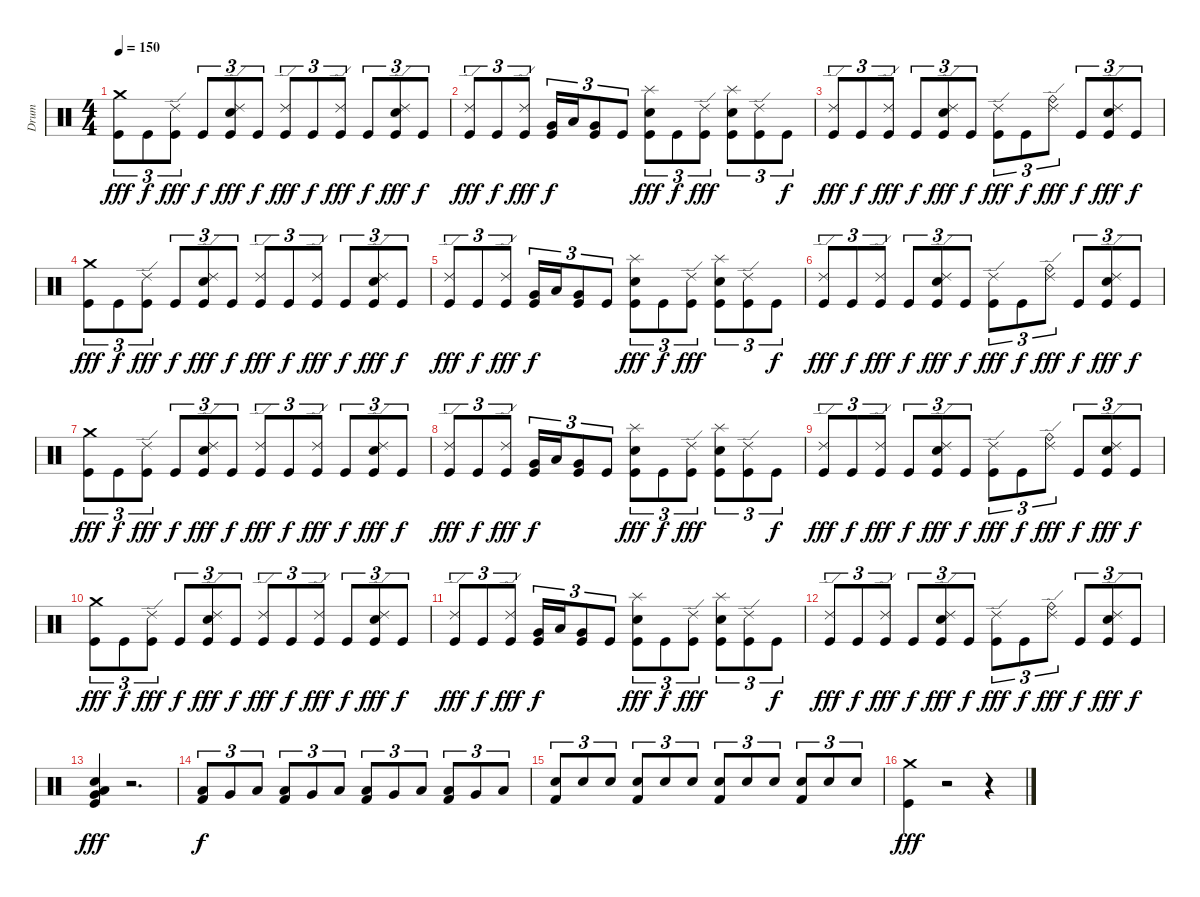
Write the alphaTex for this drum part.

\track ("Drum" "Drum") {instrument percussion}
\staff {score}
\articulation defaults
\ts (4 4)
\tempo 150
\clef neutral
\ks c
("Crash medium (hit)" "Kick (hit)").8{tu (3 2) dy fff} "Kick (hit)".8{tu (3 2) dy f} ("Ride (edge) 2" "Kick (hit)").8{tu (3 2) dy fff} "Kick (hit)".8{tu (3 2) dy f} ("Ride (edge) 2" "Snare (hit) 2" "Kick (hit)").8{tu (3 2) dy fff} "Kick (hit)".8{tu (3 2) dy f} ("Ride (edge) 2" "Kick (hit)").8{tu (3 2) dy fff} "Kick (hit)".8{tu (3 2) dy f} ("Ride (edge) 2" "Kick (hit)").8{tu (3 2) dy fff} "Kick (hit)".8{tu (3 2) dy f} ("Ride (edge) 2" "Snare (hit) 2" "Kick (hit)").8{tu (3 2) dy fff} "Kick (hit)".8{tu (3 2) dy f} |
("Ride (edge) 2" "Kick (hit)").8{tu (3 2) dy fff} "Kick (hit)".8{tu (3 2) dy f} ("Ride (edge) 2" "Kick (hit)").8{tu (3 2) dy fff} ("Very Low Tom (hit)" "Kick (hit)").16{tu (3 2) dy f} "Low Floor Tom (hit)".16{tu (3 2)} ("Very Low Tom (hit)" "Kick (hit)").8{tu (3 2)} "Kick (hit)".8{tu (3 2)} ("Splash (hit)" "Snare (hit) 2" "Kick (hit)").8{tu (3 2) dy fff} "Kick (hit)".8{tu (3 2) dy f} ("Ride (edge) 2" "Kick (hit)").8{tu (3 2) dy fff} ("Splash (hit)" "Snare (hit) 2" "Kick (hit)").8{tu (3 2)} ("Ride (edge) 2" "Kick (hit)").8{tu (3 2)} "Kick (hit)".8{tu (3 2) dy f} |
("Ride (edge) 2" "Kick (hit)").8{tu (3 2) dy fff} "Kick (hit)".8{tu (3 2) dy f} ("Ride (edge) 2" "Kick (hit)").8{tu (3 2) dy fff} "Kick (hit)".8{tu (3 2) dy f} ("Ride (edge) 2" "Snare (hit) 2" "Kick (hit)").8{tu (3 2) dy fff} "Kick (hit)".8{tu (3 2) dy f} ("Ride (edge) 2" "Kick (hit)").8{tu (3 2) dy fff} "Kick (hit)".8{tu (3 2) dy f} ("Ride (edge) 2" "Ride (bell)").8{tu (3 2) dy fff} "Kick (hit)".8{tu (3 2) dy f} ("Ride (edge) 2" "Snare (hit) 2" "Kick (hit)").8{tu (3 2) dy fff} "Kick (hit)".8{tu (3 2) dy f} |
("Crash medium (hit)" "Kick (hit)").8{tu (3 2) dy fff} "Kick (hit)".8{tu (3 2) dy f} ("Ride (edge) 2" "Kick (hit)").8{tu (3 2) dy fff} "Kick (hit)".8{tu (3 2) dy f} ("Ride (edge) 2" "Snare (hit) 2" "Kick (hit)").8{tu (3 2) dy fff} "Kick (hit)".8{tu (3 2) dy f} ("Ride (edge) 2" "Kick (hit)").8{tu (3 2) dy fff} "Kick (hit)".8{tu (3 2) dy f} ("Ride (edge) 2" "Kick (hit)").8{tu (3 2) dy fff} "Kick (hit)".8{tu (3 2) dy f} ("Ride (edge) 2" "Snare (hit) 2" "Kick (hit)").8{tu (3 2) dy fff} "Kick (hit)".8{tu (3 2) dy f} |
("Ride (edge) 2" "Kick (hit)").8{tu (3 2) dy fff} "Kick (hit)".8{tu (3 2) dy f} ("Ride (edge) 2" "Kick (hit)").8{tu (3 2) dy fff} ("Very Low Tom (hit)" "Kick (hit)").16{tu (3 2) dy f} "Low Floor Tom (hit)".16{tu (3 2)} ("Very Low Tom (hit)" "Kick (hit)").8{tu (3 2)} "Kick (hit)".8{tu (3 2)} ("Splash (hit)" "Snare (hit) 2" "Kick (hit)").8{tu (3 2) dy fff} "Kick (hit)".8{tu (3 2) dy f} ("Ride (edge) 2" "Kick (hit)").8{tu (3 2) dy fff} ("Splash (hit)" "Snare (hit) 2" "Kick (hit)").8{tu (3 2)} ("Ride (edge) 2" "Kick (hit)").8{tu (3 2)} "Kick (hit)".8{tu (3 2) dy f} |
("Ride (edge) 2" "Kick (hit)").8{tu (3 2) dy fff} "Kick (hit)".8{tu (3 2) dy f} ("Ride (edge) 2" "Kick (hit)").8{tu (3 2) dy fff} "Kick (hit)".8{tu (3 2) dy f} ("Ride (edge) 2" "Snare (hit) 2" "Kick (hit)").8{tu (3 2) dy fff} "Kick (hit)".8{tu (3 2) dy f} ("Ride (edge) 2" "Kick (hit)").8{tu (3 2) dy fff} "Kick (hit)".8{tu (3 2) dy f} ("Ride (edge) 2" "Ride (bell)").8{tu (3 2) dy fff} "Kick (hit)".8{tu (3 2) dy f} ("Ride (edge) 2" "Snare (hit) 2" "Kick (hit)").8{tu (3 2) dy fff} "Kick (hit)".8{tu (3 2) dy f} |
("Crash medium (hit)" "Kick (hit)").8{tu (3 2) dy fff} "Kick (hit)".8{tu (3 2) dy f} ("Ride (edge) 2" "Kick (hit)").8{tu (3 2) dy fff} "Kick (hit)".8{tu (3 2) dy f} ("Ride (edge) 2" "Snare (hit) 2" "Kick (hit)").8{tu (3 2) dy fff} "Kick (hit)".8{tu (3 2) dy f} ("Ride (edge) 2" "Kick (hit)").8{tu (3 2) dy fff} "Kick (hit)".8{tu (3 2) dy f} ("Ride (edge) 2" "Kick (hit)").8{tu (3 2) dy fff} "Kick (hit)".8{tu (3 2) dy f} ("Ride (edge) 2" "Snare (hit) 2" "Kick (hit)").8{tu (3 2) dy fff} "Kick (hit)".8{tu (3 2) dy f} |
("Ride (edge) 2" "Kick (hit)").8{tu (3 2) dy fff} "Kick (hit)".8{tu (3 2) dy f} ("Ride (edge) 2" "Kick (hit)").8{tu (3 2) dy fff} ("Very Low Tom (hit)" "Kick (hit)").16{tu (3 2) dy f} "Low Floor Tom (hit)".16{tu (3 2)} ("Very Low Tom (hit)" "Kick (hit)").8{tu (3 2)} "Kick (hit)".8{tu (3 2)} ("Splash (hit)" "Snare (hit) 2" "Kick (hit)").8{tu (3 2) dy fff} "Kick (hit)".8{tu (3 2) dy f} ("Ride (edge) 2" "Kick (hit)").8{tu (3 2) dy fff} ("Splash (hit)" "Snare (hit) 2" "Kick (hit)").8{tu (3 2)} ("Ride (edge) 2" "Kick (hit)").8{tu (3 2)} "Kick (hit)".8{tu (3 2) dy f} |
("Ride (edge) 2" "Kick (hit)").8{tu (3 2) dy fff} "Kick (hit)".8{tu (3 2) dy f} ("Ride (edge) 2" "Kick (hit)").8{tu (3 2) dy fff} "Kick (hit)".8{tu (3 2) dy f} ("Ride (edge) 2" "Snare (hit) 2" "Kick (hit)").8{tu (3 2) dy fff} "Kick (hit)".8{tu (3 2) dy f} ("Ride (edge) 2" "Kick (hit)").8{tu (3 2) dy fff} "Kick (hit)".8{tu (3 2) dy f} ("Ride (edge) 2" "Ride (bell)").8{tu (3 2) dy fff} "Kick (hit)".8{tu (3 2) dy f} ("Ride (edge) 2" "Snare (hit) 2" "Kick (hit)").8{tu (3 2) dy fff} "Kick (hit)".8{tu (3 2) dy f} |
("Crash medium (hit)" "Kick (hit)").8{tu (3 2) dy fff} "Kick (hit)".8{tu (3 2) dy f} ("Ride (edge) 2" "Kick (hit)").8{tu (3 2) dy fff} "Kick (hit)".8{tu (3 2) dy f} ("Ride (edge) 2" "Snare (hit) 2" "Kick (hit)").8{tu (3 2) dy fff} "Kick (hit)".8{tu (3 2) dy f} ("Ride (edge) 2" "Kick (hit)").8{tu (3 2) dy fff} "Kick (hit)".8{tu (3 2) dy f} ("Ride (edge) 2" "Kick (hit)").8{tu (3 2) dy fff} "Kick (hit)".8{tu (3 2) dy f} ("Ride (edge) 2" "Snare (hit) 2" "Kick (hit)").8{tu (3 2) dy fff} "Kick (hit)".8{tu (3 2) dy f} |
("Ride (edge) 2" "Kick (hit)").8{tu (3 2) dy fff} "Kick (hit)".8{tu (3 2) dy f} ("Ride (edge) 2" "Kick (hit)").8{tu (3 2) dy fff} ("Very Low Tom (hit)" "Kick (hit)").16{tu (3 2) dy f} "Low Floor Tom (hit)".16{tu (3 2)} ("Very Low Tom (hit)" "Kick (hit)").8{tu (3 2)} "Kick (hit)".8{tu (3 2)} ("Splash (hit)" "Snare (hit) 2" "Kick (hit)").8{tu (3 2) dy fff} "Kick (hit)".8{tu (3 2) dy f} ("Ride (edge) 2" "Kick (hit)").8{tu (3 2) dy fff} ("Splash (hit)" "Snare (hit) 2" "Kick (hit)").8{tu (3 2)} ("Ride (edge) 2" "Kick (hit)").8{tu (3 2)} "Kick (hit)".8{tu (3 2) dy f} |
("Ride (edge) 2" "Kick (hit)").8{tu (3 2) dy fff} "Kick (hit)".8{tu (3 2) dy f} ("Ride (edge) 2" "Kick (hit)").8{tu (3 2) dy fff} "Kick (hit)".8{tu (3 2) dy f} ("Ride (edge) 2" "Snare (hit) 2" "Kick (hit)").8{tu (3 2) dy fff} "Kick (hit)".8{tu (3 2) dy f} ("Ride (edge) 2" "Kick (hit)").8{tu (3 2) dy fff} "Kick (hit)".8{tu (3 2) dy f} ("Ride (edge) 2" "Ride (bell)").8{tu (3 2) dy fff} "Kick (hit)".8{tu (3 2) dy f} ("Ride (edge) 2" "Snare (hit) 2" "Kick (hit)").8{tu (3 2) dy fff} "Kick (hit)".8{tu (3 2) dy f} |
("Very Low Tom (hit)" "Snare (hit) 2" "Low Floor Tom (hit)" "Kick (hit)").4{dy fff} r.2{d} |
("Low Tom (hit)" "Kick (hit) 2").8{tu (3 2) dy f} "Very Low Tom (hit)".8{tu (3 2)} "Low Floor Tom (hit)".8{tu (3 2)} ("Low Tom (hit)" "Kick (hit) 2").8{tu (3 2)} "Very Low Tom (hit)".8{tu (3 2)} "Low Floor Tom (hit)".8{tu (3 2)} ("Low Tom (hit)" "Kick (hit) 2").8{tu (3 2)} "Very Low Tom (hit)".8{tu (3 2)} "Low Floor Tom (hit)".8{tu (3 2)} ("Low Tom (hit)" "Kick (hit) 2").8{tu (3 2)} "Very Low Tom (hit)".8{tu (3 2)} "Low Floor Tom (hit)".8{tu (3 2)} |
("Snare (hit) 2" "Kick (hit) 2").8{tu (3 2)} "Snare (hit) 2".8{tu (3 2)} "Snare (hit) 2".8{tu (3 2)} ("Snare (hit) 2" "Kick (hit) 2").8{tu (3 2)} "Snare (hit) 2".8{tu (3 2)} "Snare (hit) 2".8{tu (3 2)} ("Snare (hit) 2" "Kick (hit) 2").8{tu (3 2)} "Snare (hit) 2".8{tu (3 2)} "Snare (hit) 2".8{tu (3 2)} ("Snare (hit) 2" "Kick (hit) 2").8{tu (3 2)} "Snare (hit) 2".8{tu (3 2)} "Snare (hit) 2".8{tu (3 2)} |
("Crash medium (hit)" "Kick (hit)").4{dy fff} r.2 r.4
